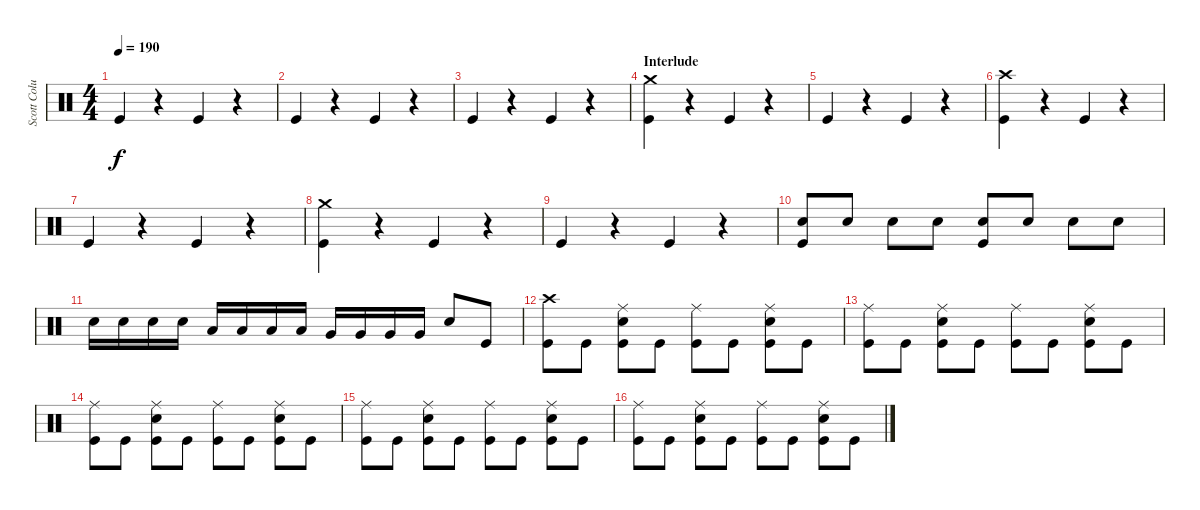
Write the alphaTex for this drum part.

\track ("Scott Columbus" "Scott Colu") {instrument percussion}
\staff {score}
\articulation defaults
\ts (4 4)
\tempo 190
\clef neutral
\ks c "Kick (hit)".4{dy f}
r.4 "Kick (hit)".4 r.4 |
"Kick (hit)".4 r.4 "Kick (hit)".4 r.4 |
"Kick (hit)".4 r.4 "Kick (hit)".4 r.4 |
\section ("" "Interlude")
("Crash medium (hit)" "Kick (hit)").4 r.4 "Kick (hit)".4 r.4 |
"Kick (hit)".4 r.4 "Kick (hit)".4 r.4 |
("Crash high (hit)" "Kick (hit)").4 r.4 "Kick (hit)".4 r.4 |
"Kick (hit)".4 r.4 "Kick (hit)".4 r.4 |
("Crash medium (hit)" "Kick (hit)").4 r.4 "Kick (hit)".4 r.4 |
"Kick (hit)".4 r.4 "Kick (hit)".4 r.4 |
("Snare (hit) 2" "Kick (hit)").8 "Snare (hit) 2".8 "Snare (hit) 2".8 "Snare (hit) 2".8 ("Snare (hit) 2" "Kick (hit)").8 "Snare (hit) 2".8 "Snare (hit) 2".8 "Snare (hit) 2".8 |
"Snare (hit) 2".16 "Snare (hit) 2".16 "Snare (hit) 2".16 "Snare (hit) 2".16 "Low Tom (hit)".16 "Low Tom (hit)".16 "Low Tom (hit)".16 "Low Tom (hit)".16 "Very Low Tom (hit)".16 "Very Low Tom (hit)".16 "Very Low Tom (hit)".16 "Very Low Tom (hit)".16 "Snare (hit) 2".8 "Kick (hit)".8 |
("Crash high (hit)" "Kick (hit)").8 "Kick (hit)".8 ("Ride (middle)" "Snare (hit) 2" "Kick (hit)").8 "Kick (hit)".8 ("Ride (middle)" "Kick (hit)").8 "Kick (hit)".8 ("Ride (middle)" "Snare (hit) 2" "Kick (hit)").8 "Kick (hit)".8 |
("Ride (middle)" "Kick (hit)").8 "Kick (hit)".8 ("Ride (middle)" "Snare (hit) 2" "Kick (hit)").8 "Kick (hit)".8 ("Ride (middle)" "Kick (hit)").8 "Kick (hit)".8 ("Ride (middle)" "Snare (hit) 2" "Kick (hit)").8 "Kick (hit)".8 |
("Ride (middle)" "Kick (hit)").8 "Kick (hit)".8 ("Ride (middle)" "Snare (hit) 2" "Kick (hit)").8 "Kick (hit)".8 ("Ride (middle)" "Kick (hit)").8 "Kick (hit)".8 ("Ride (middle)" "Snare (hit) 2" "Kick (hit)").8 "Kick (hit)".8 |
("Ride (middle)" "Kick (hit)").8 "Kick (hit)".8 ("Ride (middle)" "Snare (hit) 2" "Kick (hit)").8 "Kick (hit)".8 ("Ride (middle)" "Kick (hit)").8 "Kick (hit)".8 ("Ride (middle)" "Snare (hit) 2" "Kick (hit)").8 "Kick (hit)".8 |
("Ride (middle)" "Kick (hit)").8 "Kick (hit)".8 ("Ride (middle)" "Snare (hit) 2" "Kick (hit)").8 "Kick (hit)".8 ("Ride (middle)" "Kick (hit)").8 "Kick (hit)".8 ("Ride (middle)" "Snare (hit) 2" "Kick (hit)").8 "Kick (hit)".8
